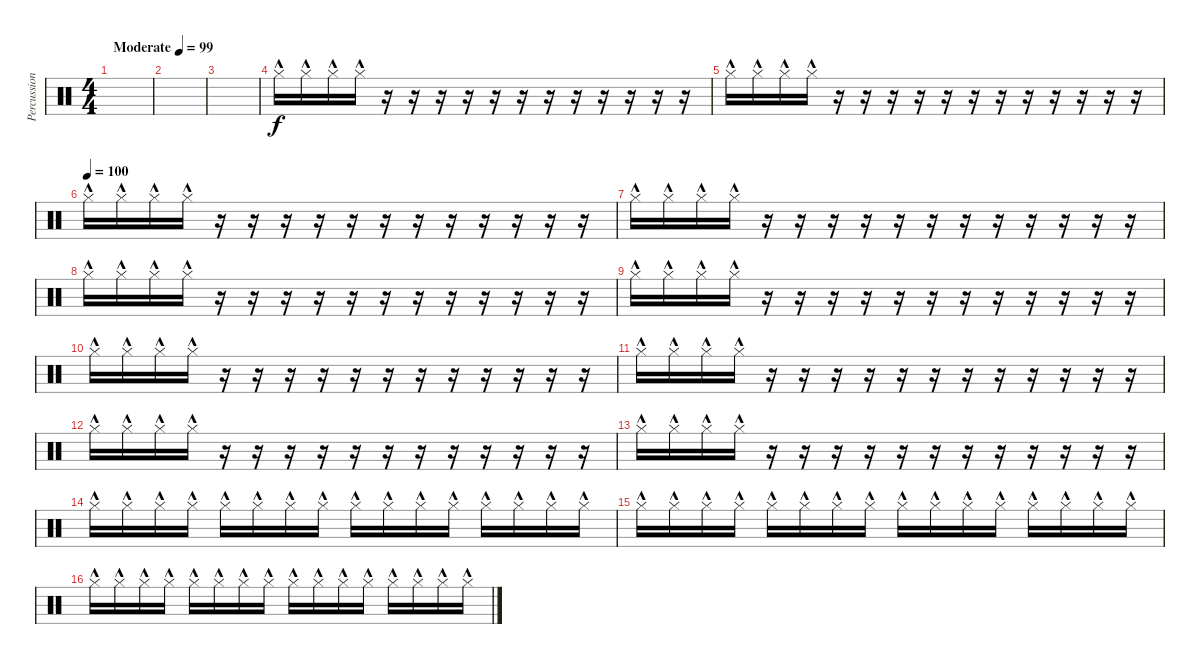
\track ("Percussion" "Percussion") {instrument percussion}
\staff {score}
\articulation defaults
\ts (4 4)
\tempo (99 "Moderate")
\clef neutral
\ks c
|
|
|
"Hi-Hat (closed)"{hac}.16 "Hi-Hat (closed)"{hac}.16 "Hi-Hat (closed)"{hac}.16 "Hi-Hat (closed)"{hac}.16 r.16 r.16 r.16 r.16 r.16 r.16 r.16 r.16 r.16 r.16 r.16 r.16 |
"Hi-Hat (closed)"{hac}.16 "Hi-Hat (closed)"{hac}.16 "Hi-Hat (closed)"{hac}.16 "Hi-Hat (closed)"{hac}.16 r.16 r.16 r.16 r.16 r.16 r.16 r.16 r.16 r.16 r.16 r.16 r.16 |
\tempo (100)
"Hi-Hat (closed)"{hac}.16 "Hi-Hat (closed)"{hac}.16 "Hi-Hat (closed)"{hac}.16 "Hi-Hat (closed)"{hac}.16 r.16 r.16 r.16 r.16 r.16 r.16 r.16 r.16 r.16 r.16 r.16 r.16 |
"Hi-Hat (closed)"{hac}.16 "Hi-Hat (closed)"{hac}.16 "Hi-Hat (closed)"{hac}.16 "Hi-Hat (closed)"{hac}.16 r.16 r.16 r.16 r.16 r.16 r.16 r.16 r.16 r.16 r.16 r.16 r.16 |
"Hi-Hat (closed)"{hac}.16 "Hi-Hat (closed)"{hac}.16 "Hi-Hat (closed)"{hac}.16 "Hi-Hat (closed)"{hac}.16 r.16 r.16 r.16 r.16 r.16 r.16 r.16 r.16 r.16 r.16 r.16 r.16 |
"Hi-Hat (closed)"{hac}.16 "Hi-Hat (closed)"{hac}.16 "Hi-Hat (closed)"{hac}.16 "Hi-Hat (closed)"{hac}.16 r.16 r.16 r.16 r.16 r.16 r.16 r.16 r.16 r.16 r.16 r.16 r.16 |
"Hi-Hat (closed)"{hac}.16 "Hi-Hat (closed)"{hac}.16 "Hi-Hat (closed)"{hac}.16 "Hi-Hat (closed)"{hac}.16 r.16 r.16 r.16 r.16 r.16 r.16 r.16 r.16 r.16 r.16 r.16 r.16 |
"Hi-Hat (closed)"{hac}.16 "Hi-Hat (closed)"{hac}.16 "Hi-Hat (closed)"{hac}.16 "Hi-Hat (closed)"{hac}.16 r.16 r.16 r.16 r.16 r.16 r.16 r.16 r.16 r.16 r.16 r.16 r.16 |
"Hi-Hat (closed)"{hac}.16 "Hi-Hat (closed)"{hac}.16 "Hi-Hat (closed)"{hac}.16 "Hi-Hat (closed)"{hac}.16 r.16 r.16 r.16 r.16 r.16 r.16 r.16 r.16 r.16 r.16 r.16 r.16 |
"Hi-Hat (closed)"{hac}.16 "Hi-Hat (closed)"{hac}.16 "Hi-Hat (closed)"{hac}.16 "Hi-Hat (closed)"{hac}.16 r.16 r.16 r.16 r.16 r.16 r.16 r.16 r.16 r.16 r.16 r.16 r.16 |
"Hi-Hat (closed)"{hac}.16 "Hi-Hat (closed)"{hac}.16 "Hi-Hat (closed)"{hac}.16 "Hi-Hat (closed)"{hac}.16 "Hi-Hat (closed)"{hac}.16 "Hi-Hat (closed)"{hac}.16 "Hi-Hat (closed)"{hac}.16 "Hi-Hat (closed)"{hac}.16 "Hi-Hat (closed)"{hac}.16 "Hi-Hat (closed)"{hac}.16 "Hi-Hat (closed)"{hac}.16 "Hi-Hat (closed)"{hac}.16 "Hi-Hat (closed)"{hac}.16 "Hi-Hat (closed)"{hac}.16 "Hi-Hat (closed)"{hac}.16 "Hi-Hat (closed)"{hac}.16 |
"Hi-Hat (closed)"{hac}.16 "Hi-Hat (closed)"{hac}.16 "Hi-Hat (closed)"{hac}.16 "Hi-Hat (closed)"{hac}.16 "Hi-Hat (closed)"{hac}.16 "Hi-Hat (closed)"{hac}.16 "Hi-Hat (closed)"{hac}.16 "Hi-Hat (closed)"{hac}.16 "Hi-Hat (closed)"{hac}.16 "Hi-Hat (closed)"{hac}.16 "Hi-Hat (closed)"{hac}.16 "Hi-Hat (closed)"{hac}.16 "Hi-Hat (closed)"{hac}.16 "Hi-Hat (closed)"{hac}.16 "Hi-Hat (closed)"{hac}.16 "Hi-Hat (closed)"{hac}.16 |
"Hi-Hat (closed)"{hac}.16 "Hi-Hat (closed)"{hac}.16 "Hi-Hat (closed)"{hac}.16 "Hi-Hat (closed)"{hac}.16 "Hi-Hat (closed)"{hac}.16 "Hi-Hat (closed)"{hac}.16 "Hi-Hat (closed)"{hac}.16 "Hi-Hat (closed)"{hac}.16 "Hi-Hat (closed)"{hac}.16 "Hi-Hat (closed)"{hac}.16 "Hi-Hat (closed)"{hac}.16 "Hi-Hat (closed)"{hac}.16 "Hi-Hat (closed)"{hac}.16 "Hi-Hat (closed)"{hac}.16 "Hi-Hat (closed)"{hac}.16 "Hi-Hat (closed)"{hac}.16
